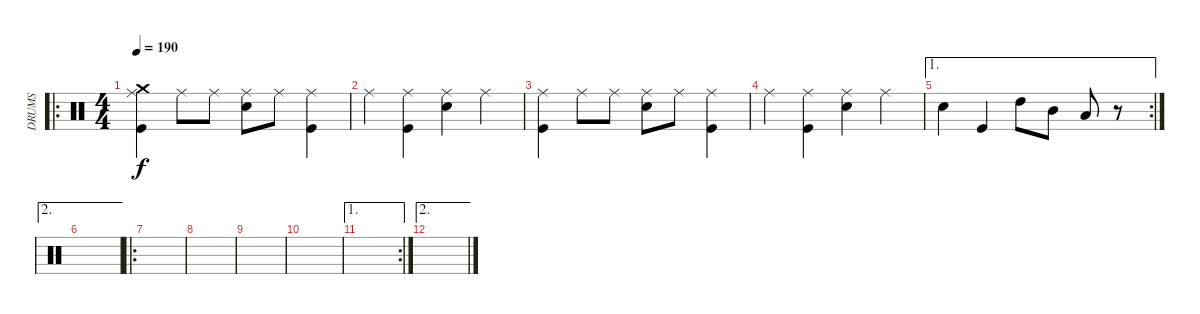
\track ("DRUMS" "DRUMS") {instrument percussion}
\staff {score}
\articulation defaults
\ro
\ts (4 4)
\tempo 190
\clef neutral
\ks c
("Ride (middle)" "Crash medium (hit)" "Kick (hit)").4{dy f} "Ride (middle)".8 "Ride (middle)".8 ("Ride (middle)" "Electric Snare (hit)").8 "Ride (middle)".8 ("Ride (middle)" "Kick (hit)").4 |
"Ride (middle)".4 ("Ride (middle)" "Kick (hit)").4 ("Ride (middle)" "Electric Snare (hit)").4 "Ride (middle)".4 |
("Ride (middle)" "Kick (hit)").4 "Ride (middle)".8 "Ride (middle)".8 ("Ride (middle)" "Electric Snare (hit)").8 "Ride (middle)".8 ("Ride (middle)" "Kick (hit)").4 |
"Ride (middle)".4 ("Ride (middle)" "Kick (hit)").4 ("Ride (middle)" "Electric Snare (hit)").4 "Ride (middle)".4 |
\ae 1
\rc 2 "Electric Snare (hit)".4 "Kick (hit)".4 "High Tom (hit)".8 "Mid Tom (hit)".8 "Low Tom (hit)".8
r.8 |
\ae 2
|
\ro
|
|
|
|
\ae 1
\rc 2
|
\ae 2
